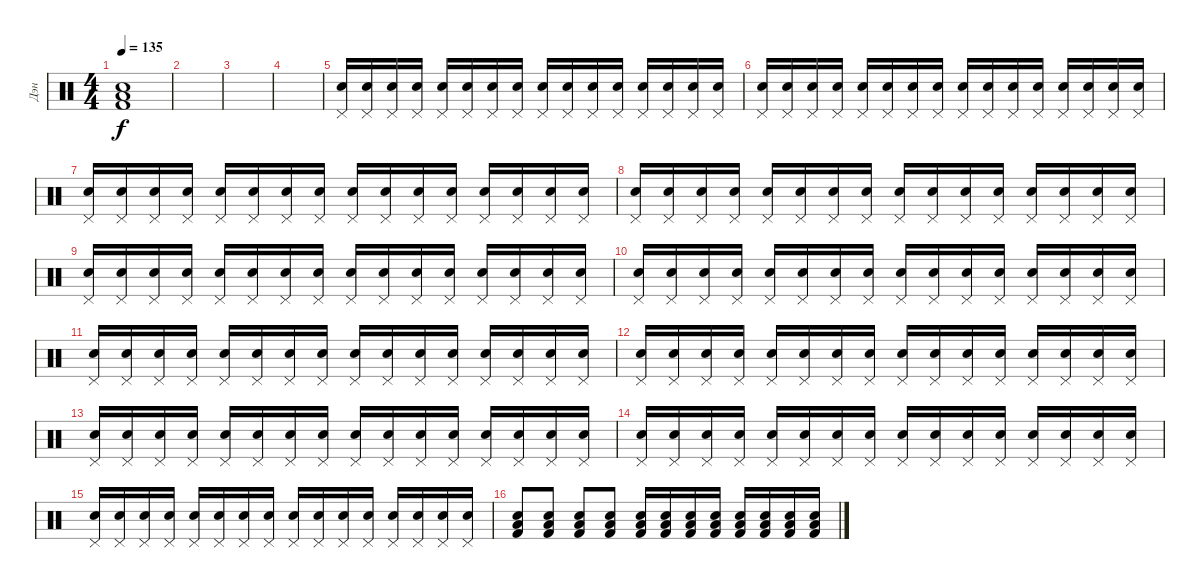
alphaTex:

\track ("Дэн" "Дэн") {instrument percussion}
\staff {score}
\articulation defaults
\ts (4 4)
\tempo 135
\clef neutral
\ks c
("Snare (hit) 2" "Low Tom (hit)" "Kick (hit) 2").1{dy f} |
|
|
|
("Pedal Hi-Hat (hit)" "Snare (hit) 2").16{volume 13} ("Pedal Hi-Hat (hit)" "Snare (hit) 2").16 ("Pedal Hi-Hat (hit)" "Snare (hit) 2").16 ("Pedal Hi-Hat (hit)" "Snare (hit) 2").16 ("Pedal Hi-Hat (hit)" "Snare (hit) 2").16 ("Pedal Hi-Hat (hit)" "Snare (hit) 2").16 ("Pedal Hi-Hat (hit)" "Snare (hit) 2").16 ("Pedal Hi-Hat (hit)" "Snare (hit) 2").16 ("Pedal Hi-Hat (hit)" "Snare (hit) 2").16 ("Pedal Hi-Hat (hit)" "Snare (hit) 2").16 ("Pedal Hi-Hat (hit)" "Snare (hit) 2").16 ("Pedal Hi-Hat (hit)" "Snare (hit) 2").16 ("Pedal Hi-Hat (hit)" "Snare (hit) 2").16 ("Pedal Hi-Hat (hit)" "Snare (hit) 2").16 ("Pedal Hi-Hat (hit)" "Snare (hit) 2").16 ("Pedal Hi-Hat (hit)" "Snare (hit) 2").16 |
("Pedal Hi-Hat (hit)" "Snare (hit) 2").16 ("Pedal Hi-Hat (hit)" "Snare (hit) 2").16 ("Pedal Hi-Hat (hit)" "Snare (hit) 2").16 ("Pedal Hi-Hat (hit)" "Snare (hit) 2").16 ("Pedal Hi-Hat (hit)" "Snare (hit) 2").16 ("Pedal Hi-Hat (hit)" "Snare (hit) 2").16 ("Pedal Hi-Hat (hit)" "Snare (hit) 2").16 ("Pedal Hi-Hat (hit)" "Snare (hit) 2").16 ("Pedal Hi-Hat (hit)" "Snare (hit) 2").16 ("Pedal Hi-Hat (hit)" "Snare (hit) 2").16 ("Pedal Hi-Hat (hit)" "Snare (hit) 2").16 ("Pedal Hi-Hat (hit)" "Snare (hit) 2").16 ("Pedal Hi-Hat (hit)" "Snare (hit) 2").16 ("Pedal Hi-Hat (hit)" "Snare (hit) 2").16 ("Pedal Hi-Hat (hit)" "Snare (hit) 2").16 ("Pedal Hi-Hat (hit)" "Snare (hit) 2").16 |
("Pedal Hi-Hat (hit)" "Snare (hit) 2").16 ("Pedal Hi-Hat (hit)" "Snare (hit) 2").16 ("Pedal Hi-Hat (hit)" "Snare (hit) 2").16 ("Pedal Hi-Hat (hit)" "Snare (hit) 2").16 ("Pedal Hi-Hat (hit)" "Snare (hit) 2").16 ("Pedal Hi-Hat (hit)" "Snare (hit) 2").16 ("Pedal Hi-Hat (hit)" "Snare (hit) 2").16 ("Pedal Hi-Hat (hit)" "Snare (hit) 2").16 ("Pedal Hi-Hat (hit)" "Snare (hit) 2").16 ("Pedal Hi-Hat (hit)" "Snare (hit) 2").16 ("Pedal Hi-Hat (hit)" "Snare (hit) 2").16 ("Pedal Hi-Hat (hit)" "Snare (hit) 2").16 ("Pedal Hi-Hat (hit)" "Snare (hit) 2").16 ("Pedal Hi-Hat (hit)" "Snare (hit) 2").16 ("Pedal Hi-Hat (hit)" "Snare (hit) 2").16 ("Pedal Hi-Hat (hit)" "Snare (hit) 2").16 |
("Pedal Hi-Hat (hit)" "Snare (hit) 2").16 ("Pedal Hi-Hat (hit)" "Snare (hit) 2").16 ("Pedal Hi-Hat (hit)" "Snare (hit) 2").16 ("Pedal Hi-Hat (hit)" "Snare (hit) 2").16 ("Pedal Hi-Hat (hit)" "Snare (hit) 2").16 ("Pedal Hi-Hat (hit)" "Snare (hit) 2").16 ("Pedal Hi-Hat (hit)" "Snare (hit) 2").16 ("Pedal Hi-Hat (hit)" "Snare (hit) 2").16 ("Pedal Hi-Hat (hit)" "Snare (hit) 2").16 ("Pedal Hi-Hat (hit)" "Snare (hit) 2").16 ("Pedal Hi-Hat (hit)" "Snare (hit) 2").16 ("Pedal Hi-Hat (hit)" "Snare (hit) 2").16 ("Pedal Hi-Hat (hit)" "Snare (hit) 2").16 ("Pedal Hi-Hat (hit)" "Snare (hit) 2").16 ("Pedal Hi-Hat (hit)" "Snare (hit) 2").16 ("Pedal Hi-Hat (hit)" "Snare (hit) 2").16 |
("Pedal Hi-Hat (hit)" "Snare (hit) 2").16{volume 13} ("Pedal Hi-Hat (hit)" "Snare (hit) 2").16 ("Pedal Hi-Hat (hit)" "Snare (hit) 2").16 ("Pedal Hi-Hat (hit)" "Snare (hit) 2").16 ("Pedal Hi-Hat (hit)" "Snare (hit) 2").16 ("Pedal Hi-Hat (hit)" "Snare (hit) 2").16 ("Pedal Hi-Hat (hit)" "Snare (hit) 2").16 ("Pedal Hi-Hat (hit)" "Snare (hit) 2").16 ("Pedal Hi-Hat (hit)" "Snare (hit) 2").16 ("Pedal Hi-Hat (hit)" "Snare (hit) 2").16 ("Pedal Hi-Hat (hit)" "Snare (hit) 2").16 ("Pedal Hi-Hat (hit)" "Snare (hit) 2").16 ("Pedal Hi-Hat (hit)" "Snare (hit) 2").16 ("Pedal Hi-Hat (hit)" "Snare (hit) 2").16 ("Pedal Hi-Hat (hit)" "Snare (hit) 2").16 ("Pedal Hi-Hat (hit)" "Snare (hit) 2").16 |
("Pedal Hi-Hat (hit)" "Snare (hit) 2").16 ("Pedal Hi-Hat (hit)" "Snare (hit) 2").16 ("Pedal Hi-Hat (hit)" "Snare (hit) 2").16 ("Pedal Hi-Hat (hit)" "Snare (hit) 2").16 ("Pedal Hi-Hat (hit)" "Snare (hit) 2").16 ("Pedal Hi-Hat (hit)" "Snare (hit) 2").16 ("Pedal Hi-Hat (hit)" "Snare (hit) 2").16 ("Pedal Hi-Hat (hit)" "Snare (hit) 2").16 ("Pedal Hi-Hat (hit)" "Snare (hit) 2").16 ("Pedal Hi-Hat (hit)" "Snare (hit) 2").16 ("Pedal Hi-Hat (hit)" "Snare (hit) 2").16 ("Pedal Hi-Hat (hit)" "Snare (hit) 2").16 ("Pedal Hi-Hat (hit)" "Snare (hit) 2").16 ("Pedal Hi-Hat (hit)" "Snare (hit) 2").16 ("Pedal Hi-Hat (hit)" "Snare (hit) 2").16 ("Pedal Hi-Hat (hit)" "Snare (hit) 2").16 |
("Pedal Hi-Hat (hit)" "Snare (hit) 2").16 ("Pedal Hi-Hat (hit)" "Snare (hit) 2").16 ("Pedal Hi-Hat (hit)" "Snare (hit) 2").16 ("Pedal Hi-Hat (hit)" "Snare (hit) 2").16 ("Pedal Hi-Hat (hit)" "Snare (hit) 2").16 ("Pedal Hi-Hat (hit)" "Snare (hit) 2").16 ("Pedal Hi-Hat (hit)" "Snare (hit) 2").16 ("Pedal Hi-Hat (hit)" "Snare (hit) 2").16 ("Pedal Hi-Hat (hit)" "Snare (hit) 2").16 ("Pedal Hi-Hat (hit)" "Snare (hit) 2").16 ("Pedal Hi-Hat (hit)" "Snare (hit) 2").16 ("Pedal Hi-Hat (hit)" "Snare (hit) 2").16 ("Pedal Hi-Hat (hit)" "Snare (hit) 2").16 ("Pedal Hi-Hat (hit)" "Snare (hit) 2").16 ("Pedal Hi-Hat (hit)" "Snare (hit) 2").16 ("Pedal Hi-Hat (hit)" "Snare (hit) 2").16 |
("Pedal Hi-Hat (hit)" "Snare (hit) 2").16 ("Pedal Hi-Hat (hit)" "Snare (hit) 2").16 ("Pedal Hi-Hat (hit)" "Snare (hit) 2").16 ("Pedal Hi-Hat (hit)" "Snare (hit) 2").16 ("Pedal Hi-Hat (hit)" "Snare (hit) 2").16 ("Pedal Hi-Hat (hit)" "Snare (hit) 2").16 ("Pedal Hi-Hat (hit)" "Snare (hit) 2").16 ("Pedal Hi-Hat (hit)" "Snare (hit) 2").16 ("Pedal Hi-Hat (hit)" "Snare (hit) 2").16 ("Pedal Hi-Hat (hit)" "Snare (hit) 2").16 ("Pedal Hi-Hat (hit)" "Snare (hit) 2").16 ("Pedal Hi-Hat (hit)" "Snare (hit) 2").16 ("Pedal Hi-Hat (hit)" "Snare (hit) 2").16 ("Pedal Hi-Hat (hit)" "Snare (hit) 2").16 ("Pedal Hi-Hat (hit)" "Snare (hit) 2").16 ("Pedal Hi-Hat (hit)" "Snare (hit) 2").16 |
("Pedal Hi-Hat (hit)" "Snare (hit) 2").16 ("Pedal Hi-Hat (hit)" "Snare (hit) 2").16 ("Pedal Hi-Hat (hit)" "Snare (hit) 2").16 ("Pedal Hi-Hat (hit)" "Snare (hit) 2").16 ("Pedal Hi-Hat (hit)" "Snare (hit) 2").16 ("Pedal Hi-Hat (hit)" "Snare (hit) 2").16 ("Pedal Hi-Hat (hit)" "Snare (hit) 2").16 ("Pedal Hi-Hat (hit)" "Snare (hit) 2").16 ("Pedal Hi-Hat (hit)" "Snare (hit) 2").16 ("Pedal Hi-Hat (hit)" "Snare (hit) 2").16 ("Pedal Hi-Hat (hit)" "Snare (hit) 2").16 ("Pedal Hi-Hat (hit)" "Snare (hit) 2").16 ("Pedal Hi-Hat (hit)" "Snare (hit) 2").16 ("Pedal Hi-Hat (hit)" "Snare (hit) 2").16 ("Pedal Hi-Hat (hit)" "Snare (hit) 2").16 ("Pedal Hi-Hat (hit)" "Snare (hit) 2").16 |
("Pedal Hi-Hat (hit)" "Snare (hit) 2").16 ("Pedal Hi-Hat (hit)" "Snare (hit) 2").16 ("Pedal Hi-Hat (hit)" "Snare (hit) 2").16 ("Pedal Hi-Hat (hit)" "Snare (hit) 2").16 ("Pedal Hi-Hat (hit)" "Snare (hit) 2").16 ("Pedal Hi-Hat (hit)" "Snare (hit) 2").16 ("Pedal Hi-Hat (hit)" "Snare (hit) 2").16 ("Pedal Hi-Hat (hit)" "Snare (hit) 2").16 ("Pedal Hi-Hat (hit)" "Snare (hit) 2").16 ("Pedal Hi-Hat (hit)" "Snare (hit) 2").16 ("Pedal Hi-Hat (hit)" "Snare (hit) 2").16 ("Pedal Hi-Hat (hit)" "Snare (hit) 2").16 ("Pedal Hi-Hat (hit)" "Snare (hit) 2").16 ("Pedal Hi-Hat (hit)" "Snare (hit) 2").16 ("Pedal Hi-Hat (hit)" "Snare (hit) 2").16 ("Pedal Hi-Hat (hit)" "Snare (hit) 2").16 |
("Pedal Hi-Hat (hit)" "Snare (hit) 2").16 ("Pedal Hi-Hat (hit)" "Snare (hit) 2").16 ("Pedal Hi-Hat (hit)" "Snare (hit) 2").16 ("Pedal Hi-Hat (hit)" "Snare (hit) 2").16 ("Pedal Hi-Hat (hit)" "Snare (hit) 2").16 ("Pedal Hi-Hat (hit)" "Snare (hit) 2").16 ("Pedal Hi-Hat (hit)" "Snare (hit) 2").16 ("Pedal Hi-Hat (hit)" "Snare (hit) 2").16 ("Pedal Hi-Hat (hit)" "Snare (hit) 2").16 ("Pedal Hi-Hat (hit)" "Snare (hit) 2").16 ("Pedal Hi-Hat (hit)" "Snare (hit) 2").16 ("Pedal Hi-Hat (hit)" "Snare (hit) 2").16 ("Pedal Hi-Hat (hit)" "Snare (hit) 2").16 ("Pedal Hi-Hat (hit)" "Snare (hit) 2").16 ("Pedal Hi-Hat (hit)" "Snare (hit) 2").16 ("Pedal Hi-Hat (hit)" "Snare (hit) 2").16 |
("Snare (hit) 2" "Low Tom (hit)" "Kick (hit) 2").8 ("Snare (hit) 2" "Low Tom (hit)" "Kick (hit) 2").8 ("Snare (hit) 2" "Low Tom (hit)" "Kick (hit) 2").8 ("Snare (hit) 2" "Low Tom (hit)" "Kick (hit) 2").8 ("Snare (hit) 2" "Low Tom (hit)" "Kick (hit) 2").16{volume 16} ("Snare (hit) 2" "Low Tom (hit)" "Kick (hit) 2").16 ("Snare (hit) 2" "Low Tom (hit)" "Kick (hit) 2").16 ("Snare (hit) 2" "Low Tom (hit)" "Kick (hit) 2").16 ("Snare (hit) 2" "Low Tom (hit)" "Kick (hit) 2").16 ("Snare (hit) 2" "Low Tom (hit)" "Kick (hit) 2").16 ("Snare (hit) 2" "Low Tom (hit)" "Kick (hit) 2").16 ("Snare (hit) 2" "Low Tom (hit)" "Kick (hit) 2").16
